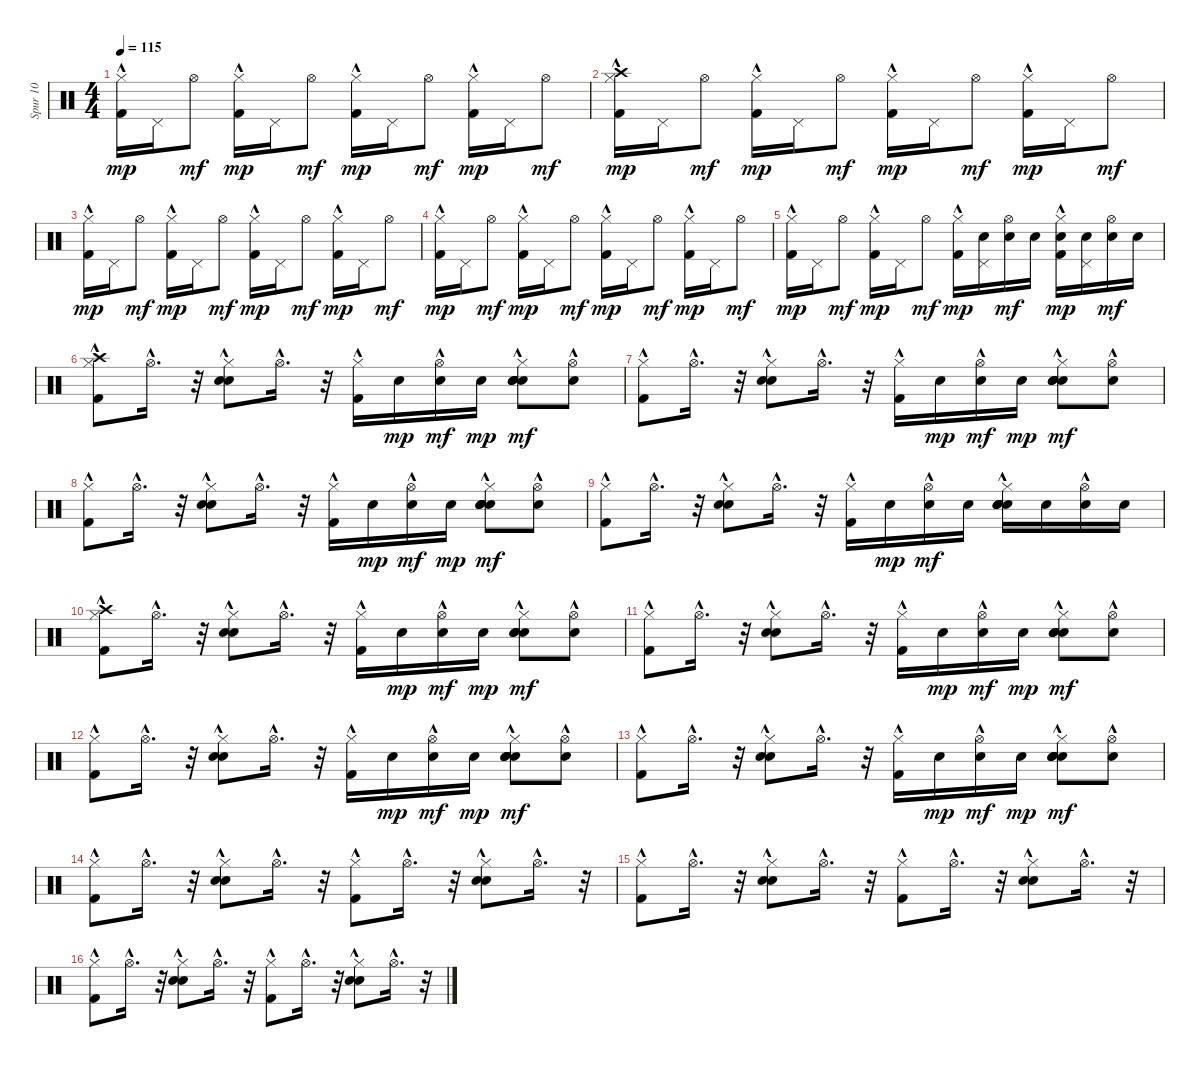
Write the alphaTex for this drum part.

\track ("Spur 10" "Spur 10") {instrument percussion}
\staff {score}
\articulation defaults
\ts (4 4)
\tempo 115
\clef neutral
\ks c
("Hi-Hat (closed)" "Kick (hit) 2"{hac}).16{dy mp} "Pedal Hi-Hat (hit)".16 "Hi-Hat (open)".8{dy mf} ("Hi-Hat (closed)" "Kick (hit) 2"{hac}).16{dy mp} "Pedal Hi-Hat (hit)".16 "Hi-Hat (open)".8{dy mf} ("Hi-Hat (closed)" "Kick (hit) 2"{hac}).16{dy mp} "Pedal Hi-Hat (hit)".16 "Hi-Hat (open)".8{dy mf} ("Hi-Hat (closed)" "Kick (hit) 2"{hac}).16{dy mp} "Pedal Hi-Hat (hit)".16 "Hi-Hat (open)".8{dy mf} |
("Crash high (hit)"{hac} "Hi-Hat (closed)" "Kick (hit) 2"{hac}).16{dy mp} "Pedal Hi-Hat (hit)".16 "Hi-Hat (open)".8{dy mf} ("Hi-Hat (closed)" "Kick (hit) 2"{hac}).16{dy mp} "Pedal Hi-Hat (hit)".16 "Hi-Hat (open)".8{dy mf} ("Hi-Hat (closed)" "Kick (hit) 2"{hac}).16{dy mp} "Pedal Hi-Hat (hit)".16 "Hi-Hat (open)".8{dy mf} ("Hi-Hat (closed)" "Kick (hit) 2"{hac}).16{dy mp} "Pedal Hi-Hat (hit)".16 "Hi-Hat (open)".8{dy mf} |
("Hi-Hat (closed)" "Kick (hit) 2"{hac}).16{dy mp} "Pedal Hi-Hat (hit)".16 "Hi-Hat (open)".8{dy mf} ("Hi-Hat (closed)" "Kick (hit) 2"{hac}).16{dy mp} "Pedal Hi-Hat (hit)".16 "Hi-Hat (open)".8{dy mf} ("Hi-Hat (closed)" "Kick (hit) 2"{hac}).16{dy mp} "Pedal Hi-Hat (hit)".16 "Hi-Hat (open)".8{dy mf} ("Hi-Hat (closed)" "Kick (hit) 2"{hac}).16{dy mp} "Pedal Hi-Hat (hit)".16 "Hi-Hat (open)".8{dy mf} |
("Hi-Hat (closed)" "Kick (hit) 2"{hac}).16{dy mp} "Pedal Hi-Hat (hit)".16 "Hi-Hat (open)".8{dy mf} ("Hi-Hat (closed)" "Kick (hit) 2"{hac}).16{dy mp} "Pedal Hi-Hat (hit)".16 "Hi-Hat (open)".8{dy mf} ("Hi-Hat (closed)" "Kick (hit) 2"{hac}).16{dy mp} "Pedal Hi-Hat (hit)".16 "Hi-Hat (open)".8{dy mf} ("Hi-Hat (closed)" "Kick (hit) 2"{hac}).16{dy mp} "Pedal Hi-Hat (hit)".16 "Hi-Hat (open)".8{dy mf} |
("Hi-Hat (closed)" "Kick (hit) 2"{hac}).16{dy mp} "Pedal Hi-Hat (hit)".16 "Hi-Hat (open)".8{dy mf} ("Hi-Hat (closed)" "Kick (hit) 2"{hac}).16{dy mp} "Pedal Hi-Hat (hit)".16 "Hi-Hat (open)".8{dy mf} ("Hi-Hat (closed)" "Kick (hit) 2"{hac}).16{dy mp} ("Snare (hit) 2" "Pedal Hi-Hat (hit)").16 ("Snare (hit) 2" "Hi-Hat (open)").16{dy mf} "Snare (hit) 2".16 ("Snare (hit) 2" "Hi-Hat (closed)" "Kick (hit) 2"{hac}).16{dy mp} ("Snare (hit) 2" "Pedal Hi-Hat (hit)").16 ("Snare (hit) 2" "Hi-Hat (open)").16{dy mf} "Snare (hit) 2".16 |
("Crash high (hit)"{hac} "Hi-Hat (closed)"{hac} "Kick (hit) 2"{hac}).8 "Hi-Hat (open)"{hac}.16{d} r.32 ("Hi-Hat (closed)"{hac} "Hand Clap (hit)"{hac} "Snare (hit) 2"{hac}).8 "Hi-Hat (open)"{hac}.16{d} r.32 ("Hi-Hat (closed)"{hac} "Kick (hit) 2"{hac}).16 "Snare (hit) 2".16{dy mp} ("Snare (hit) 2" "Hi-Hat (open)"{hac}).16{dy mf} "Snare (hit) 2".16{dy mp} ("Snare (hit) 2" "Snare (hit) 2" "Hi-Hat (closed)"{hac} "Snare (hit) 2" "Hand Clap (hit)"{hac}).8{dy mf} ("Snare (hit) 2" "Hi-Hat (open)"{hac}).8 |
("Hi-Hat (closed)"{hac} "Kick (hit) 2"{hac}).8 "Hi-Hat (open)"{hac}.16{d} r.32 ("Hi-Hat (closed)"{hac} "Snare (hit) 2"{hac} "Hand Clap (hit)"{hac}).8 "Hi-Hat (open)"{hac}.16{d} r.32 ("Hi-Hat (closed)"{hac} "Kick (hit) 2"{hac}).16 "Snare (hit) 2".16{dy mp} ("Snare (hit) 2" "Hi-Hat (open)"{hac}).16{dy mf} "Snare (hit) 2".16{dy mp} ("Snare (hit) 2" "Snare (hit) 2" "Hi-Hat (closed)"{hac} "Snare (hit) 2" "Hand Clap (hit)"{hac}).8{dy mf} ("Snare (hit) 2" "Hi-Hat (open)"{hac}).8 |
("Hi-Hat (closed)"{hac} "Kick (hit) 2"{hac}).8 "Hi-Hat (open)"{hac}.16{d} r.32 ("Hi-Hat (closed)"{hac} "Hand Clap (hit)"{hac} "Snare (hit) 2"{hac}).8 "Hi-Hat (open)"{hac}.16{d} r.32 ("Hi-Hat (closed)"{hac} "Kick (hit) 2"{hac}).16 "Snare (hit) 2".16{dy mp} ("Snare (hit) 2" "Hi-Hat (open)"{hac}).16{dy mf} "Snare (hit) 2".16{dy mp} ("Snare (hit) 2" "Snare (hit) 2" "Hi-Hat (closed)"{hac} "Snare (hit) 2" "Hand Clap (hit)"{hac}).8{dy mf} ("Snare (hit) 2" "Hi-Hat (open)"{hac}).8 |
("Hi-Hat (closed)"{hac} "Kick (hit) 2"{hac}).8 "Hi-Hat (open)"{hac}.16{d} r.32 ("Hi-Hat (closed)"{hac} "Snare (hit) 2"{hac} "Hand Clap (hit)"{hac}).8 "Hi-Hat (open)"{hac}.16{d} r.32 ("Hi-Hat (closed)"{hac} "Kick (hit) 2"{hac}).16 "Snare (hit) 2".16{dy mp} ("Snare (hit) 2" "Hi-Hat (open)"{hac}).16{dy mf} "Snare (hit) 2".16 ("Snare (hit) 2" "Snare (hit) 2" "Hi-Hat (closed)"{hac} "Snare (hit) 2" "Hand Clap (hit)"{hac}).16 "Snare (hit) 2".16 ("Snare (hit) 2" "Hi-Hat (open)"{hac}).16 "Snare (hit) 2".16 |
("Crash high (hit)"{hac} "Hi-Hat (closed)"{hac} "Kick (hit) 2"{hac}).8 "Hi-Hat (open)"{hac}.16{d} r.32 ("Hi-Hat (closed)"{hac} "Hand Clap (hit)"{hac} "Snare (hit) 2"{hac}).8 "Hi-Hat (open)"{hac}.16{d} r.32 ("Hi-Hat (closed)"{hac} "Kick (hit) 2"{hac}).16 "Snare (hit) 2".16{dy mp} ("Snare (hit) 2" "Hi-Hat (open)"{hac}).16{dy mf} "Snare (hit) 2".16{dy mp} ("Snare (hit) 2" "Snare (hit) 2" "Hi-Hat (closed)"{hac} "Snare (hit) 2" "Hand Clap (hit)"{hac}).8{dy mf} ("Snare (hit) 2" "Hi-Hat (open)"{hac}).8 |
("Hi-Hat (closed)"{hac} "Kick (hit) 2"{hac}).8 "Hi-Hat (open)"{hac}.16{d} r.32 ("Hi-Hat (closed)"{hac} "Snare (hit) 2"{hac} "Hand Clap (hit)"{hac}).8 "Hi-Hat (open)"{hac}.16{d} r.32 ("Hi-Hat (closed)"{hac} "Kick (hit) 2"{hac}).16 "Snare (hit) 2".16{dy mp} ("Snare (hit) 2" "Hi-Hat (open)"{hac}).16{dy mf} "Snare (hit) 2".16{dy mp} ("Snare (hit) 2" "Snare (hit) 2" "Hi-Hat (closed)"{hac} "Snare (hit) 2" "Hand Clap (hit)"{hac}).8{dy mf} ("Snare (hit) 2" "Hi-Hat (open)"{hac}).8 |
("Hi-Hat (closed)"{hac} "Kick (hit) 2"{hac}).8 "Hi-Hat (open)"{hac}.16{d} r.32 ("Hi-Hat (closed)"{hac} "Hand Clap (hit)"{hac} "Snare (hit) 2"{hac}).8 "Hi-Hat (open)"{hac}.16{d} r.32 ("Hi-Hat (closed)"{hac} "Kick (hit) 2"{hac}).16 "Snare (hit) 2".16{dy mp} ("Snare (hit) 2" "Hi-Hat (open)"{hac}).16{dy mf} "Snare (hit) 2".16{dy mp} ("Snare (hit) 2" "Snare (hit) 2" "Hi-Hat (closed)"{hac} "Snare (hit) 2" "Hand Clap (hit)"{hac}).8{dy mf} ("Snare (hit) 2" "Hi-Hat (open)"{hac}).8 |
("Hi-Hat (closed)"{hac} "Kick (hit) 2"{hac}).8 "Hi-Hat (open)"{hac}.16{d} r.32 ("Hi-Hat (closed)"{hac} "Snare (hit) 2"{hac} "Hand Clap (hit)"{hac}).8 "Hi-Hat (open)"{hac}.16{d} r.32 ("Hi-Hat (closed)"{hac} "Kick (hit) 2"{hac}).16 "Snare (hit) 2".16{dy mp} ("Snare (hit) 2" "Hi-Hat (open)"{hac}).16{dy mf} "Snare (hit) 2".16{dy mp} ("Snare (hit) 2" "Snare (hit) 2" "Hi-Hat (closed)"{hac} "Snare (hit) 2" "Hand Clap (hit)"{hac}).8{dy mf} ("Snare (hit) 2" "Hi-Hat (open)"{hac}).8 |
("Hi-Hat (closed)"{hac} "Kick (hit) 2"{hac}).8 "Hi-Hat (open)"{hac}.16{d} r.32 ("Hi-Hat (closed)"{hac} "Hand Clap (hit)"{hac} "Snare (hit) 2"{hac}).8 "Hi-Hat (open)"{hac}.16{d} r.32 ("Hi-Hat (closed)"{hac} "Kick (hit) 2"{hac}).8 "Hi-Hat (open)"{hac}.16{d} r.32 ("Hi-Hat (closed)"{hac} "Snare (hit) 2"{hac} "Hand Clap (hit)"{hac}).8 "Hi-Hat (open)"{hac}.16{d} r.32 |
("Hi-Hat (closed)"{hac} "Kick (hit) 2"{hac}).8 "Hi-Hat (open)"{hac}.16{d} r.32 ("Hi-Hat (closed)"{hac} "Snare (hit) 2"{hac} "Hand Clap (hit)"{hac}).8 "Hi-Hat (open)"{hac}.16{d} r.32 ("Hi-Hat (closed)"{hac} "Kick (hit) 2"{hac}).8 "Hi-Hat (open)"{hac}.16{d} r.32 ("Hi-Hat (closed)"{hac} "Snare (hit) 2"{hac} "Hand Clap (hit)"{hac}).8 "Hi-Hat (open)"{hac}.16{d} r.32 |
("Hi-Hat (closed)"{hac} "Kick (hit) 2"{hac}).8 "Hi-Hat (open)"{hac}.16{d} r.32 ("Hi-Hat (closed)"{hac} "Hand Clap (hit)"{hac} "Snare (hit) 2"{hac}).8 "Hi-Hat (open)"{hac}.16{d} r.32 ("Hi-Hat (closed)"{hac} "Kick (hit) 2"{hac}).8 "Hi-Hat (open)"{hac}.16{d} r.32 ("Hi-Hat (closed)"{hac} "Snare (hit) 2"{hac} "Hand Clap (hit)"{hac}).8 "Hi-Hat (open)"{hac}.16{d} r.32
